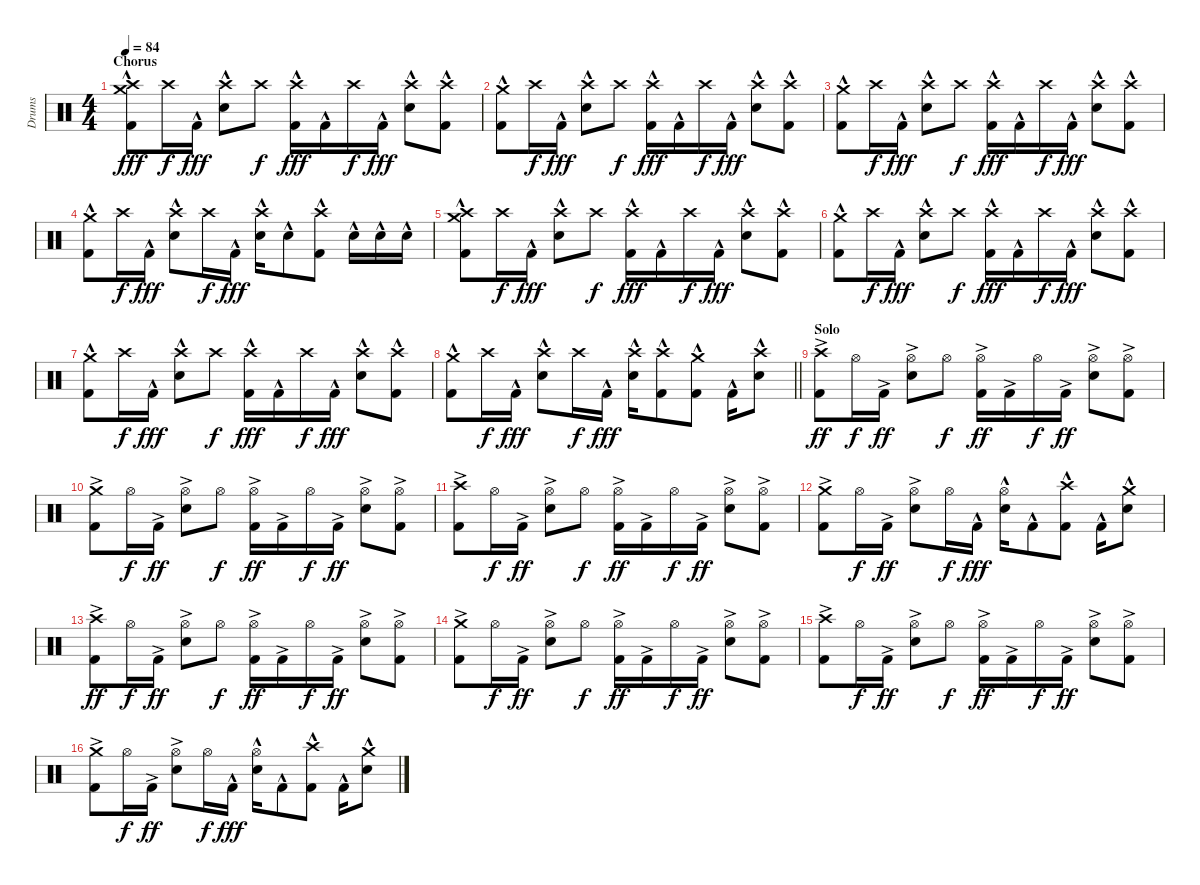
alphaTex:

\track ("Drums" "Drums") {instrument percussion}
\staff {score}
\articulation defaults
\ts (4 4)
\section ("" "Chorus")
\tempo 84
\clef neutral
\ks c
("Crash high (hit)" "Crash medium (hit)" "Kick (hit) 2"{hac}).8{dy fff} "Crash high (hit)".16{dy f} "Kick (hit) 2"{hac}.16{dy fff} ("Crash high (hit)" "Electric Snare (hit)"{hac}).8 "Crash high (hit)".8{dy f} ("Crash high (hit)" "Kick (hit) 2"{hac}).16{dy fff} "Kick (hit) 2"{hac}.16 "Crash high (hit)".16{dy f} "Kick (hit) 2"{hac}.16{dy fff} ("Crash high (hit)" "Electric Snare (hit)"{hac}).8 ("Crash high (hit)" "Kick (hit) 2"{hac}).8 |
("Crash medium (hit)" "Kick (hit) 2"{hac}).8 "Crash high (hit)".16{dy f} "Kick (hit) 2"{hac}.16{dy fff} ("Crash high (hit)" "Electric Snare (hit)"{hac}).8 "Crash high (hit)".8{dy f} ("Crash high (hit)" "Kick (hit) 2"{hac}).16{dy fff} "Kick (hit) 2"{hac}.16 "Crash high (hit)".16{dy f} "Kick (hit) 2"{hac}.16{dy fff} ("Crash high (hit)" "Electric Snare (hit)"{hac}).8 ("Crash high (hit)" "Kick (hit) 2"{hac}).8 |
("Crash medium (hit)" "Kick (hit) 2"{hac}).8 "Crash high (hit)".16{dy f} "Kick (hit) 2"{hac}.16{dy fff} ("Crash high (hit)" "Electric Snare (hit)"{hac}).8 "Crash high (hit)".8{dy f} ("Crash high (hit)" "Kick (hit) 2"{hac}).16{dy fff} "Kick (hit) 2"{hac}.16 "Crash high (hit)".16{dy f} "Kick (hit) 2"{hac}.16{dy fff} ("Crash high (hit)" "Electric Snare (hit)"{hac}).8 ("Crash high (hit)" "Kick (hit) 2"{hac}).8 |
("Crash medium (hit)" "Kick (hit) 2"{hac}).8 "Crash high (hit)".16{dy f} "Kick (hit) 2"{hac}.16{dy fff} ("Crash high (hit)" "Electric Snare (hit)"{hac}).8 "Crash high (hit)".16{dy f} "Kick (hit) 2"{hac}.16{dy fff} ("Crash high (hit)" "Electric Snare (hit)"{hac}).16 "Electric Snare (hit)"{hac}.8 ("Crash high (hit)" "Kick (hit) 2"{hac}).8 "Electric Snare (hit)"{hac}.16 "Electric Snare (hit)"{hac}.16 "Electric Snare (hit)"{hac}.16 |
("Crash high (hit)" "Crash medium (hit)" "Kick (hit) 2"{hac}).8 "Crash high (hit)".16{dy f} "Kick (hit) 2"{hac}.16{dy fff} ("Crash high (hit)" "Electric Snare (hit)"{hac}).8 "Crash high (hit)".8{dy f} ("Crash high (hit)" "Kick (hit) 2"{hac}).16{dy fff} "Kick (hit) 2"{hac}.16 "Crash high (hit)".16{dy f} "Kick (hit) 2"{hac}.16{dy fff} ("Crash high (hit)" "Electric Snare (hit)"{hac}).8 ("Crash high (hit)" "Kick (hit) 2"{hac}).8 |
("Crash medium (hit)" "Kick (hit) 2"{hac}).8 "Crash high (hit)".16{dy f} "Kick (hit) 2"{hac}.16{dy fff} ("Crash high (hit)" "Electric Snare (hit)"{hac}).8 "Crash high (hit)".8{dy f} ("Crash high (hit)" "Kick (hit) 2"{hac}).16{dy fff} "Kick (hit) 2"{hac}.16 "Crash high (hit)".16{dy f} "Kick (hit) 2"{hac}.16{dy fff} ("Crash high (hit)" "Electric Snare (hit)"{hac}).8 ("Crash high (hit)" "Kick (hit) 2"{hac}).8 |
("Crash medium (hit)" "Kick (hit) 2"{hac}).8 "Crash high (hit)".16{dy f} "Kick (hit) 2"{hac}.16{dy fff} ("Crash high (hit)" "Electric Snare (hit)"{hac}).8 "Crash high (hit)".8{dy f} ("Crash high (hit)" "Kick (hit) 2"{hac}).16{dy fff} "Kick (hit) 2"{hac}.16 "Crash high (hit)".16{dy f} "Kick (hit) 2"{hac}.16{dy fff} ("Crash high (hit)" "Electric Snare (hit)"{hac}).8 ("Crash high (hit)" "Kick (hit) 2"{hac}).8 |
\barLineRight lightlight
("Crash medium (hit)" "Kick (hit) 2"{hac}).8 "Crash high (hit)".16{dy f} "Kick (hit) 2"{hac}.16{dy fff} ("Crash high (hit)" "Electric Snare (hit)"{hac}).8 "Crash high (hit)".16{dy f} "Kick (hit) 2"{hac}.16{dy fff} ("Crash high (hit)" "Electric Snare (hit)"{hac}).16 ("Crash high (hit)" "Kick (hit) 2"{hac}).8 ("Crash medium (hit)" "Kick (hit) 2"{hac}).8 "Kick (hit) 2"{hac}.16 ("Crash high (hit)" "Electric Snare (hit)"{hac}).8 |
\section ("" "Solo")
("Crash high (hit)" "Kick (hit) 2"{ac}).8{dy ff} "Hi-Hat (open)".16{dy f} "Kick (hit) 2"{ac}.16{dy ff} ("Hi-Hat (open)" "Electric Snare (hit)"{ac}).8 "Hi-Hat (open)".8{dy f} ("Hi-Hat (open)" "Kick (hit) 2"{ac}).16{dy ff} "Kick (hit) 2"{ac}.16 "Hi-Hat (open)".16{dy f} "Kick (hit) 2"{ac}.16{dy ff} ("Hi-Hat (open)" "Electric Snare (hit)"{ac}).8 ("Hi-Hat (open)" "Kick (hit) 2"{ac}).8 |
("Crash medium (hit)" "Kick (hit) 2"{ac}).8 "Hi-Hat (open)".16{dy f} "Kick (hit) 2"{ac}.16{dy ff} ("Hi-Hat (open)" "Electric Snare (hit)"{ac}).8 "Hi-Hat (open)".8{dy f} ("Hi-Hat (open)" "Kick (hit) 2"{ac}).16{dy ff} "Kick (hit) 2"{ac}.16 "Hi-Hat (open)".16{dy f} "Kick (hit) 2"{ac}.16{dy ff} ("Hi-Hat (open)" "Electric Snare (hit)"{ac}).8 ("Hi-Hat (open)" "Kick (hit) 2"{ac}).8 |
("Crash high (hit)" "Kick (hit) 2"{ac}).8 "Hi-Hat (open)".16{dy f} "Kick (hit) 2"{ac}.16{dy ff} ("Hi-Hat (open)" "Electric Snare (hit)"{ac}).8 "Hi-Hat (open)".8{dy f} ("Hi-Hat (open)" "Kick (hit) 2"{ac}).16{dy ff} "Kick (hit) 2"{ac}.16 "Hi-Hat (open)".16{dy f} "Kick (hit) 2"{ac}.16{dy ff} ("Hi-Hat (open)" "Electric Snare (hit)"{ac}).8 ("Hi-Hat (open)" "Kick (hit) 2"{ac}).8 |
("Crash medium (hit)" "Kick (hit) 2"{ac}).8 "Hi-Hat (open)".16{dy f} "Kick (hit) 2"{ac}.16{dy ff} ("Hi-Hat (open)" "Electric Snare (hit)"{ac}).8 "Hi-Hat (open)".16{dy f} "Kick (hit) 2"{hac}.16{dy fff} ("Hi-Hat (open)" "Electric Snare (hit)"{hac}).16 "Kick (hit) 2"{hac}.8 ("Crash high (hit)" "Kick (hit) 2"{hac}).8 "Kick (hit) 2"{hac}.16 ("Crash medium (hit)" "Electric Snare (hit)"{hac}).8 |
("Crash high (hit)" "Kick (hit) 2"{ac}).8{dy ff} "Hi-Hat (open)".16{dy f} "Kick (hit) 2"{ac}.16{dy ff} ("Hi-Hat (open)" "Electric Snare (hit)"{ac}).8 "Hi-Hat (open)".8{dy f} ("Hi-Hat (open)" "Kick (hit) 2"{ac}).16{dy ff} "Kick (hit) 2"{ac}.16 "Hi-Hat (open)".16{dy f} "Kick (hit) 2"{ac}.16{dy ff} ("Hi-Hat (open)" "Electric Snare (hit)"{ac}).8 ("Hi-Hat (open)" "Kick (hit) 2"{ac}).8 |
("Crash medium (hit)" "Kick (hit) 2"{ac}).8 "Hi-Hat (open)".16{dy f} "Kick (hit) 2"{ac}.16{dy ff} ("Hi-Hat (open)" "Electric Snare (hit)"{ac}).8 "Hi-Hat (open)".8{dy f} ("Hi-Hat (open)" "Kick (hit) 2"{ac}).16{dy ff} "Kick (hit) 2"{ac}.16 "Hi-Hat (open)".16{dy f} "Kick (hit) 2"{ac}.16{dy ff} ("Hi-Hat (open)" "Electric Snare (hit)"{ac}).8 ("Hi-Hat (open)" "Kick (hit) 2"{ac}).8 |
("Crash high (hit)" "Kick (hit) 2"{ac}).8 "Hi-Hat (open)".16{dy f} "Kick (hit) 2"{ac}.16{dy ff} ("Hi-Hat (open)" "Electric Snare (hit)"{ac}).8 "Hi-Hat (open)".8{dy f} ("Hi-Hat (open)" "Kick (hit) 2"{ac}).16{dy ff} "Kick (hit) 2"{ac}.16 "Hi-Hat (open)".16{dy f} "Kick (hit) 2"{ac}.16{dy ff} ("Hi-Hat (open)" "Electric Snare (hit)"{ac}).8 ("Hi-Hat (open)" "Kick (hit) 2"{ac}).8 |
("Crash medium (hit)" "Kick (hit) 2"{ac}).8 "Hi-Hat (open)".16{dy f} "Kick (hit) 2"{ac}.16{dy ff} ("Hi-Hat (open)" "Electric Snare (hit)"{ac}).8 "Hi-Hat (open)".16{dy f} "Kick (hit) 2"{hac}.16{dy fff} ("Hi-Hat (open)" "Electric Snare (hit)"{hac}).16 "Kick (hit) 2"{hac}.8 ("Crash high (hit)" "Kick (hit) 2"{hac}).8 "Kick (hit) 2"{hac}.16 ("Crash medium (hit)" "Electric Snare (hit)"{hac}).8
